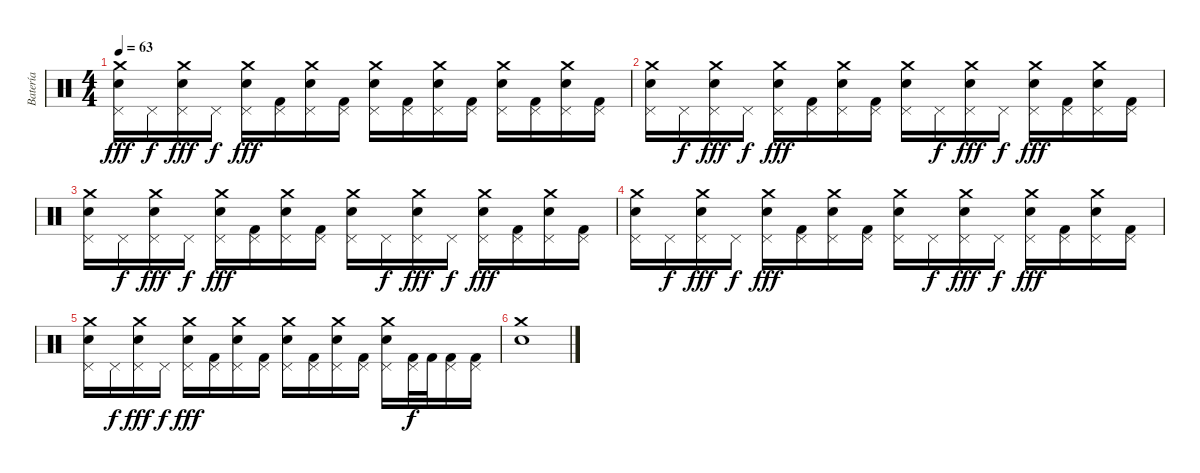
\track ("Batería" "Batería") {instrument percussion}
\staff {score}
\articulation defaults
\ts (4 4)
\tempo 63
\clef neutral
\ks c
("Crash medium (hit)" "Electric Snare (hit)" "Pedal Hi-Hat (hit)").16{dy fff} "Pedal Hi-Hat (hit)".16{dy f} ("Crash medium (hit)" "Electric Snare (hit)" "Pedal Hi-Hat (hit)").16{dy fff} "Pedal Hi-Hat (hit)".16{dy f} ("Crash medium (hit)" "Electric Snare (hit)" "Pedal Hi-Hat (hit)").16{dy fff} ("Kick (hit) 2" "Pedal Hi-Hat (hit)").16 ("Crash medium (hit)" "Electric Snare (hit)" "Pedal Hi-Hat (hit)").16 ("Kick (hit) 2" "Pedal Hi-Hat (hit)").16 ("Crash medium (hit)" "Electric Snare (hit)" "Pedal Hi-Hat (hit)").16 ("Kick (hit) 2" "Pedal Hi-Hat (hit)").16 ("Crash medium (hit)" "Electric Snare (hit)" "Pedal Hi-Hat (hit)").16 ("Kick (hit) 2" "Pedal Hi-Hat (hit)").16 ("Crash medium (hit)" "Electric Snare (hit)" "Pedal Hi-Hat (hit)").16 ("Kick (hit) 2" "Pedal Hi-Hat (hit)").16 ("Crash medium (hit)" "Electric Snare (hit)" "Pedal Hi-Hat (hit)").16 ("Kick (hit) 2" "Pedal Hi-Hat (hit)").16 |
("Crash medium (hit)" "Electric Snare (hit)" "Pedal Hi-Hat (hit)").16 "Pedal Hi-Hat (hit)".16{dy f} ("Crash medium (hit)" "Electric Snare (hit)" "Pedal Hi-Hat (hit)").16{dy fff} "Pedal Hi-Hat (hit)".16{dy f} ("Crash medium (hit)" "Electric Snare (hit)" "Pedal Hi-Hat (hit)").16{dy fff} ("Kick (hit) 2" "Pedal Hi-Hat (hit)").16 ("Crash medium (hit)" "Electric Snare (hit)" "Pedal Hi-Hat (hit)").16 ("Kick (hit) 2" "Pedal Hi-Hat (hit)").16 ("Crash medium (hit)" "Electric Snare (hit)" "Pedal Hi-Hat (hit)").16 "Pedal Hi-Hat (hit)".16{dy f} ("Crash medium (hit)" "Electric Snare (hit)" "Pedal Hi-Hat (hit)").16{dy fff} "Pedal Hi-Hat (hit)".16{dy f} ("Crash medium (hit)" "Electric Snare (hit)" "Pedal Hi-Hat (hit)").16{dy fff} ("Kick (hit) 2" "Pedal Hi-Hat (hit)").16 ("Crash medium (hit)" "Electric Snare (hit)" "Pedal Hi-Hat (hit)").16 ("Kick (hit) 2" "Pedal Hi-Hat (hit)").16 |
("Crash medium (hit)" "Electric Snare (hit)" "Pedal Hi-Hat (hit)").16 "Pedal Hi-Hat (hit)".16{dy f} ("Crash medium (hit)" "Electric Snare (hit)" "Pedal Hi-Hat (hit)").16{dy fff} "Pedal Hi-Hat (hit)".16{dy f} ("Crash medium (hit)" "Electric Snare (hit)" "Pedal Hi-Hat (hit)").16{dy fff} ("Kick (hit) 2" "Pedal Hi-Hat (hit)").16 ("Crash medium (hit)" "Electric Snare (hit)" "Pedal Hi-Hat (hit)").16 ("Kick (hit) 2" "Pedal Hi-Hat (hit)").16 ("Crash medium (hit)" "Electric Snare (hit)" "Pedal Hi-Hat (hit)").16 "Pedal Hi-Hat (hit)".16{dy f} ("Crash medium (hit)" "Electric Snare (hit)" "Pedal Hi-Hat (hit)").16{dy fff} "Pedal Hi-Hat (hit)".16{dy f} ("Crash medium (hit)" "Electric Snare (hit)" "Pedal Hi-Hat (hit)").16{dy fff} ("Kick (hit) 2" "Pedal Hi-Hat (hit)").16 ("Crash medium (hit)" "Electric Snare (hit)" "Pedal Hi-Hat (hit)").16 ("Kick (hit) 2" "Pedal Hi-Hat (hit)").16 |
("Crash medium (hit)" "Electric Snare (hit)" "Pedal Hi-Hat (hit)").16 "Pedal Hi-Hat (hit)".16{dy f} ("Crash medium (hit)" "Electric Snare (hit)" "Pedal Hi-Hat (hit)").16{dy fff} "Pedal Hi-Hat (hit)".16{dy f} ("Crash medium (hit)" "Electric Snare (hit)" "Pedal Hi-Hat (hit)").16{dy fff} ("Kick (hit) 2" "Pedal Hi-Hat (hit)").16 ("Crash medium (hit)" "Electric Snare (hit)" "Pedal Hi-Hat (hit)").16 ("Kick (hit) 2" "Pedal Hi-Hat (hit)").16 ("Crash medium (hit)" "Electric Snare (hit)" "Pedal Hi-Hat (hit)").16 "Pedal Hi-Hat (hit)".16{dy f} ("Crash medium (hit)" "Electric Snare (hit)" "Pedal Hi-Hat (hit)").16{dy fff} "Pedal Hi-Hat (hit)".16{dy f} ("Crash medium (hit)" "Electric Snare (hit)" "Pedal Hi-Hat (hit)").16{dy fff} ("Kick (hit) 2" "Pedal Hi-Hat (hit)").16 ("Crash medium (hit)" "Electric Snare (hit)" "Pedal Hi-Hat (hit)").16 ("Kick (hit) 2" "Pedal Hi-Hat (hit)").16 |
("Crash medium (hit)" "Electric Snare (hit)" "Pedal Hi-Hat (hit)").16 "Pedal Hi-Hat (hit)".16{dy f} ("Crash medium (hit)" "Electric Snare (hit)" "Pedal Hi-Hat (hit)").16{dy fff} "Pedal Hi-Hat (hit)".16{dy f} ("Crash medium (hit)" "Electric Snare (hit)" "Pedal Hi-Hat (hit)").16{dy fff} ("Kick (hit) 2" "Pedal Hi-Hat (hit)").16 ("Crash medium (hit)" "Electric Snare (hit)" "Pedal Hi-Hat (hit)").16 ("Kick (hit) 2" "Pedal Hi-Hat (hit)").16 ("Crash medium (hit)" "Electric Snare (hit)" "Pedal Hi-Hat (hit)").16 ("Kick (hit) 2" "Pedal Hi-Hat (hit)").16 ("Crash medium (hit)" "Electric Snare (hit)" "Pedal Hi-Hat (hit)").16 ("Kick (hit) 2" "Pedal Hi-Hat (hit)").16 ("Crash medium (hit)" "Electric Snare (hit)" "Pedal Hi-Hat (hit)").16 ("Kick (hit) 2" "Pedal Hi-Hat (hit)").32{dy f} "Kick (hit) 2".32 ("Kick (hit) 2" "Pedal Hi-Hat (hit)").16 ("Kick (hit) 2" "Pedal Hi-Hat (hit)").16 |
("Crash medium (hit)" "Electric Snare (hit)").1
